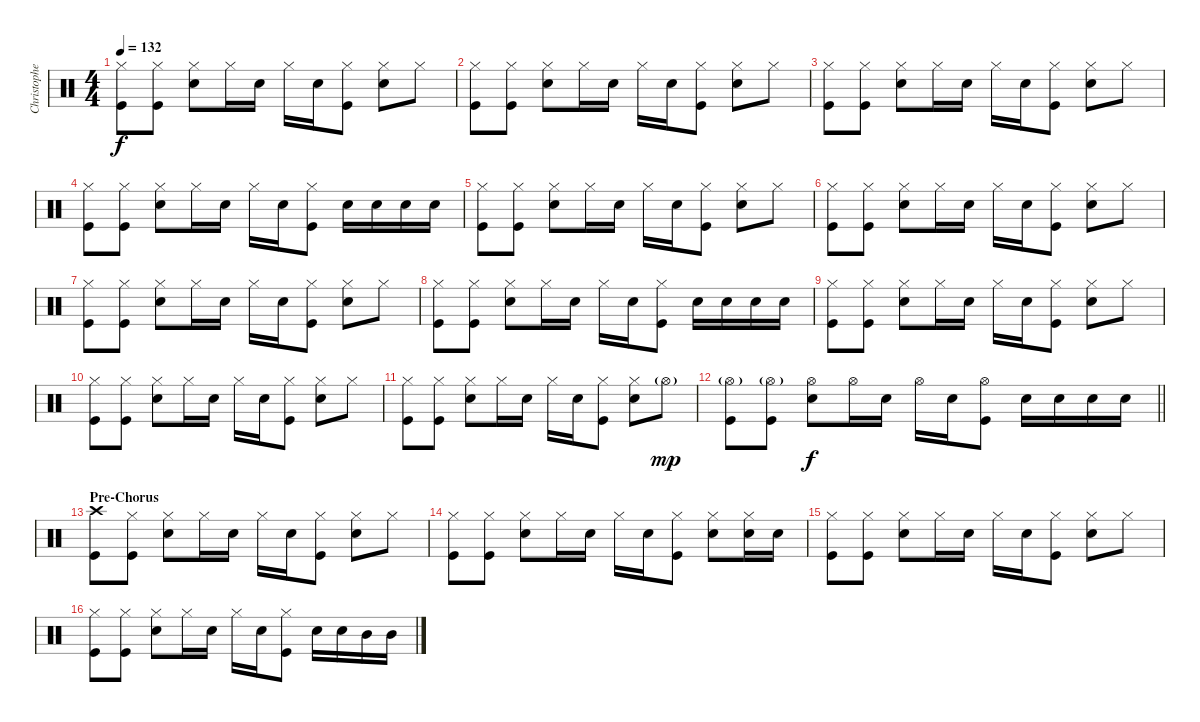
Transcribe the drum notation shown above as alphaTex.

\track ("Christopher - Drums" "Christophe") {instrument percussion}
\staff {score}
\articulation defaults
\ts (4 4)
\tempo 132
\clef neutral
\ks c
("Hi-Hat (closed)" "Kick (hit)").8{dy f} ("Hi-Hat (closed)" "Kick (hit)").8 ("Hi-Hat (closed)" "Snare (hit) 2").8 "Hi-Hat (closed)".16 "Snare (hit) 2".16 "Hi-Hat (closed)".16 "Snare (hit) 2".16 ("Hi-Hat (closed)" "Kick (hit)").8 ("Hi-Hat (closed)" "Snare (hit) 2").8 "Hi-Hat (closed)".8 |
("Hi-Hat (closed)" "Kick (hit)").8 ("Hi-Hat (closed)" "Kick (hit)").8 ("Hi-Hat (closed)" "Snare (hit) 2").8 "Hi-Hat (closed)".16 "Snare (hit) 2".16 "Hi-Hat (closed)".16 "Snare (hit) 2".16 ("Hi-Hat (closed)" "Kick (hit)").8 ("Hi-Hat (closed)" "Snare (hit) 2").8 "Hi-Hat (closed)".8 |
("Hi-Hat (closed)" "Kick (hit)").8 ("Hi-Hat (closed)" "Kick (hit)").8 ("Hi-Hat (closed)" "Snare (hit) 2").8 "Hi-Hat (closed)".16 "Snare (hit) 2".16 "Hi-Hat (closed)".16 "Snare (hit) 2".16 ("Hi-Hat (closed)" "Kick (hit)").8 ("Hi-Hat (closed)" "Snare (hit) 2").8 "Hi-Hat (closed)".8 |
("Hi-Hat (closed)" "Kick (hit)").8 ("Hi-Hat (closed)" "Kick (hit)").8 ("Hi-Hat (closed)" "Snare (hit) 2").8 "Hi-Hat (closed)".16 "Snare (hit) 2".16 "Hi-Hat (closed)".16 "Snare (hit) 2".16 ("Hi-Hat (closed)" "Kick (hit)").8 "Snare (hit) 2".16 "Snare (hit) 2".16 "Snare (hit) 2".16 "Snare (hit) 2".16 |
("Hi-Hat (closed)" "Kick (hit)").8 ("Hi-Hat (closed)" "Kick (hit)").8 ("Hi-Hat (closed)" "Snare (hit) 2").8 "Hi-Hat (closed)".16 "Snare (hit) 2".16 "Hi-Hat (closed)".16 "Snare (hit) 2".16 ("Hi-Hat (closed)" "Kick (hit)").8 ("Hi-Hat (closed)" "Snare (hit) 2").8 "Hi-Hat (closed)".8 |
("Hi-Hat (closed)" "Kick (hit)").8 ("Hi-Hat (closed)" "Kick (hit)").8 ("Hi-Hat (closed)" "Snare (hit) 2").8 "Hi-Hat (closed)".16 "Snare (hit) 2".16 "Hi-Hat (closed)".16 "Snare (hit) 2".16 ("Hi-Hat (closed)" "Kick (hit)").8 ("Hi-Hat (closed)" "Snare (hit) 2").8 "Hi-Hat (closed)".8 |
("Hi-Hat (closed)" "Kick (hit)").8 ("Hi-Hat (closed)" "Kick (hit)").8 ("Hi-Hat (closed)" "Snare (hit) 2").8 "Hi-Hat (closed)".16 "Snare (hit) 2".16 "Hi-Hat (closed)".16 "Snare (hit) 2".16 ("Hi-Hat (closed)" "Kick (hit)").8 ("Hi-Hat (closed)" "Snare (hit) 2").8 "Hi-Hat (closed)".8 |
("Hi-Hat (closed)" "Kick (hit)").8 ("Hi-Hat (closed)" "Kick (hit)").8 ("Hi-Hat (closed)" "Snare (hit) 2").8 "Hi-Hat (closed)".16 "Snare (hit) 2".16 "Hi-Hat (closed)".16 "Snare (hit) 2".16 ("Hi-Hat (closed)" "Kick (hit)").8 "Snare (hit) 2".16 "Snare (hit) 2".16 "Snare (hit) 2".16 "Snare (hit) 2".16 |
("Hi-Hat (closed)" "Kick (hit)").8 ("Hi-Hat (closed)" "Kick (hit)").8 ("Hi-Hat (closed)" "Snare (hit) 2").8 "Hi-Hat (closed)".16 "Snare (hit) 2".16 "Hi-Hat (closed)".16 "Snare (hit) 2".16 ("Hi-Hat (closed)" "Kick (hit)").8 ("Hi-Hat (closed)" "Snare (hit) 2").8 "Hi-Hat (closed)".8 |
("Hi-Hat (closed)" "Kick (hit)").8 ("Hi-Hat (closed)" "Kick (hit)").8 ("Hi-Hat (closed)" "Snare (hit) 2").8 "Hi-Hat (closed)".16 "Snare (hit) 2".16 "Hi-Hat (closed)".16 "Snare (hit) 2".16 ("Hi-Hat (closed)" "Kick (hit)").8 ("Hi-Hat (closed)" "Snare (hit) 2").8 "Hi-Hat (closed)".8 |
("Hi-Hat (closed)" "Kick (hit)").8 ("Hi-Hat (closed)" "Kick (hit)").8 ("Hi-Hat (closed)" "Snare (hit) 2").8 "Hi-Hat (closed)".16 "Snare (hit) 2".16 "Hi-Hat (closed)".16 "Snare (hit) 2".16 ("Hi-Hat (closed)" "Kick (hit)").8 ("Hi-Hat (closed)" "Snare (hit) 2").8 "Hi-Hat (open)"{g}.8{dy mp} |
\barLineRight lightlight
("Hi-Hat (open)"{g} "Kick (hit)").8 ("Hi-Hat (open)"{g} "Kick (hit)").8 ("Hi-Hat (open)" "Snare (hit) 2").8{dy f} "Hi-Hat (open)".16 "Snare (hit) 2".16 "Hi-Hat (open)".16 "Snare (hit) 2".16 ("Hi-Hat (open)" "Kick (hit)").8 "Snare (hit) 2".16 "Snare (hit) 2".16 "Snare (hit) 2".16 "Snare (hit) 2".16 |
\section ("" "Pre-Chorus")
("Crash high (hit)" "Kick (hit)").8 ("Hi-Hat (closed)" "Kick (hit)").8 ("Hi-Hat (closed)" "Snare (hit) 2").8 "Hi-Hat (closed)".16 "Snare (hit) 2".16 "Hi-Hat (closed)".16 "Snare (hit) 2".16 ("Hi-Hat (closed)" "Kick (hit)").8 ("Hi-Hat (closed)" "Snare (hit) 2").8 "Hi-Hat (closed)".8 |
("Hi-Hat (closed)" "Kick (hit)").8 ("Hi-Hat (closed)" "Kick (hit)").8 ("Hi-Hat (closed)" "Snare (hit) 2").8 "Hi-Hat (closed)".16 "Snare (hit) 2".16 "Hi-Hat (closed)".16 "Snare (hit) 2".16 ("Hi-Hat (closed)" "Kick (hit)").8 ("Hi-Hat (closed)" "Snare (hit) 2").8 ("Hi-Hat (closed)" "Snare (hit) 2").16 "Snare (hit) 2".16 |
("Hi-Hat (closed)" "Kick (hit)").8 ("Hi-Hat (closed)" "Kick (hit)").8 ("Hi-Hat (closed)" "Snare (hit) 2").8 "Hi-Hat (closed)".16 "Snare (hit) 2".16 "Hi-Hat (closed)".16 "Snare (hit) 2".16 ("Hi-Hat (closed)" "Kick (hit)").8 ("Hi-Hat (closed)" "Snare (hit) 2").8 "Hi-Hat (closed)".8 |
("Hi-Hat (closed)" "Kick (hit)").8 ("Hi-Hat (closed)" "Kick (hit)").8 ("Hi-Hat (closed)" "Snare (hit) 2").8 "Hi-Hat (closed)".16 "Snare (hit) 2".16 "Hi-Hat (closed)".16 "Snare (hit) 2".16 ("Hi-Hat (closed)" "Kick (hit)").8 "Snare (hit) 2".16 "Snare (hit) 2".16 "Mid Tom (hit)".16 "Mid Tom (hit)".16
